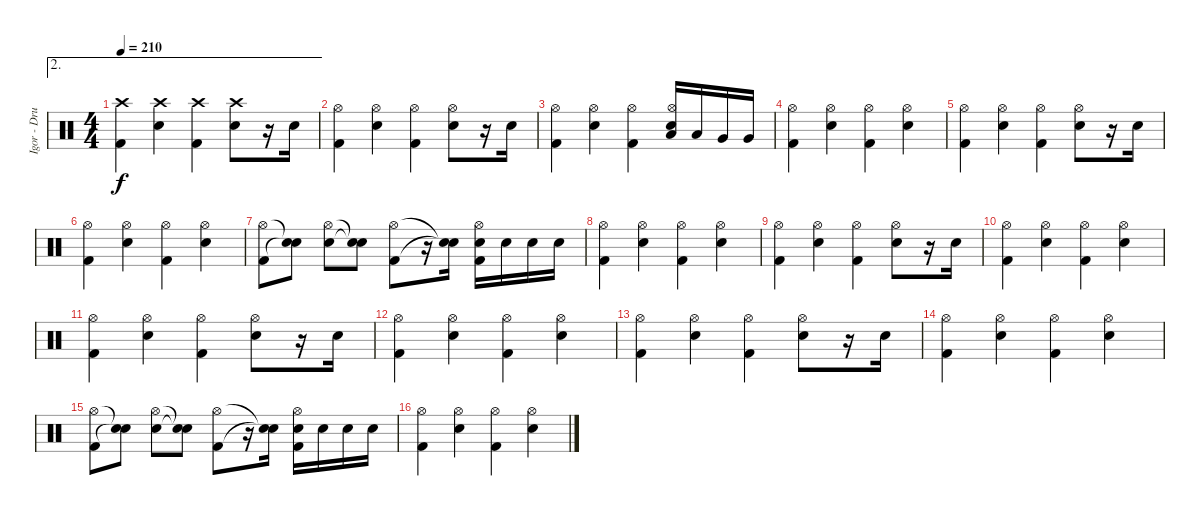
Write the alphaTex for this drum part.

\track ("Igor - Drums" "Igor - Dru") {instrument percussion}
\staff {score}
\articulation defaults
\ae 2
\ts (4 4)
\tempo 210
\clef neutral
\ks c
("Crash high (hit)" "Kick (hit) 2").4{dy f} ("Crash high (hit)" "Snare (hit) 2").4 ("Crash high (hit)" "Kick (hit) 2").4 ("Crash high (hit)" "Snare (hit) 2").8 r.16 "Snare (hit) 2".16 |
("Hi-Hat (open)" "Kick (hit) 2").4 ("Hi-Hat (open)" "Snare (hit) 2").4 ("Hi-Hat (open)" "Kick (hit) 2").4 ("Hi-Hat (open)" "Snare (hit) 2").8 r.16 "Snare (hit) 2".16 |
("Hi-Hat (open)" "Kick (hit) 2").4 ("Hi-Hat (open)" "Snare (hit) 2").4 ("Hi-Hat (open)" "Kick (hit) 2").4 ("Hi-Hat (open)" "Low Tom (hit)" "Snare (hit) 2").16 "Low Tom (hit)".16 "Very Low Tom (hit)".16 "Very Low Tom (hit)".16 |
("Hi-Hat (open)" "Kick (hit) 2").4 ("Hi-Hat (open)" "Snare (hit) 2").4 ("Hi-Hat (open)" "Kick (hit) 2").4 ("Hi-Hat (open)" "Snare (hit) 2").4 |
("Hi-Hat (open)" "Kick (hit) 2").4 ("Hi-Hat (open)" "Snare (hit) 2").4 ("Hi-Hat (open)" "Kick (hit) 2").4 ("Hi-Hat (open)" "Snare (hit) 2").8 r.16 "Snare (hit) 2".16 |
("Hi-Hat (open)" "Kick (hit) 2").4 ("Hi-Hat (open)" "Snare (hit) 2").4 ("Hi-Hat (open)" "Kick (hit) 2").4 ("Hi-Hat (open)" "Snare (hit) 2").4 |
("Hi-Hat (open)" "Kick (hit) 2").8 ("Snare (hit)"{t} "Snare (hit)"{t}).8 ("Hi-Hat (open)" "Snare (hit) 2").8 ("Snare (hit)"{t} "Snare (hit)"{t}).8 ("Hi-Hat (open)" "Kick (hit) 2").8 r.16 ("Snare (hit)"{t} "Snare (hit)"{t}).16 ("Hi-Hat (open)" "Snare (hit) 2" "Kick (hit) 2").16 "Snare (hit) 2".16 "Snare (hit) 2".16 "Snare (hit) 2".16 |
("Hi-Hat (open)" "Kick (hit) 2").4 ("Hi-Hat (open)" "Snare (hit) 2").4 ("Hi-Hat (open)" "Kick (hit) 2").4 ("Hi-Hat (open)" "Snare (hit) 2").4 |
("Hi-Hat (open)" "Kick (hit) 2").4 ("Hi-Hat (open)" "Snare (hit) 2").4 ("Hi-Hat (open)" "Kick (hit) 2").4 ("Hi-Hat (open)" "Snare (hit) 2").8 r.16 "Snare (hit) 2".16 |
("Hi-Hat (open)" "Kick (hit) 2").4 ("Hi-Hat (open)" "Snare (hit) 2").4 ("Hi-Hat (open)" "Kick (hit) 2").4 ("Hi-Hat (open)" "Snare (hit) 2").4 |
("Hi-Hat (open)" "Kick (hit) 2").4 ("Hi-Hat (open)" "Snare (hit) 2").4 ("Hi-Hat (open)" "Kick (hit) 2").4 ("Hi-Hat (open)" "Snare (hit) 2").8 r.16 "Snare (hit) 2".16 |
("Hi-Hat (open)" "Kick (hit) 2").4 ("Hi-Hat (open)" "Snare (hit) 2").4 ("Hi-Hat (open)" "Kick (hit) 2").4 ("Hi-Hat (open)" "Snare (hit) 2").4 |
("Hi-Hat (open)" "Kick (hit) 2").4 ("Hi-Hat (open)" "Snare (hit) 2").4 ("Hi-Hat (open)" "Kick (hit) 2").4 ("Hi-Hat (open)" "Snare (hit) 2").8 r.16 "Snare (hit) 2".16 |
("Hi-Hat (open)" "Kick (hit) 2").4 ("Hi-Hat (open)" "Snare (hit) 2").4 ("Hi-Hat (open)" "Kick (hit) 2").4 ("Hi-Hat (open)" "Snare (hit) 2").4 |
("Hi-Hat (open)" "Kick (hit) 2").8 ("Snare (hit)"{t} "Snare (hit)"{t}).8 ("Hi-Hat (open)" "Snare (hit) 2").8 ("Snare (hit)"{t} "Snare (hit)"{t}).8 ("Hi-Hat (open)" "Kick (hit) 2").8 r.16 ("Snare (hit)"{t} "Snare (hit)"{t}).16 ("Hi-Hat (open)" "Snare (hit) 2" "Kick (hit) 2").16 "Snare (hit) 2".16 "Snare (hit) 2".16 "Snare (hit) 2".16 |
("Hi-Hat (open)" "Kick (hit) 2").4 ("Hi-Hat (open)" "Snare (hit) 2").4 ("Hi-Hat (open)" "Kick (hit) 2").4 ("Hi-Hat (open)" "Snare (hit) 2").4
